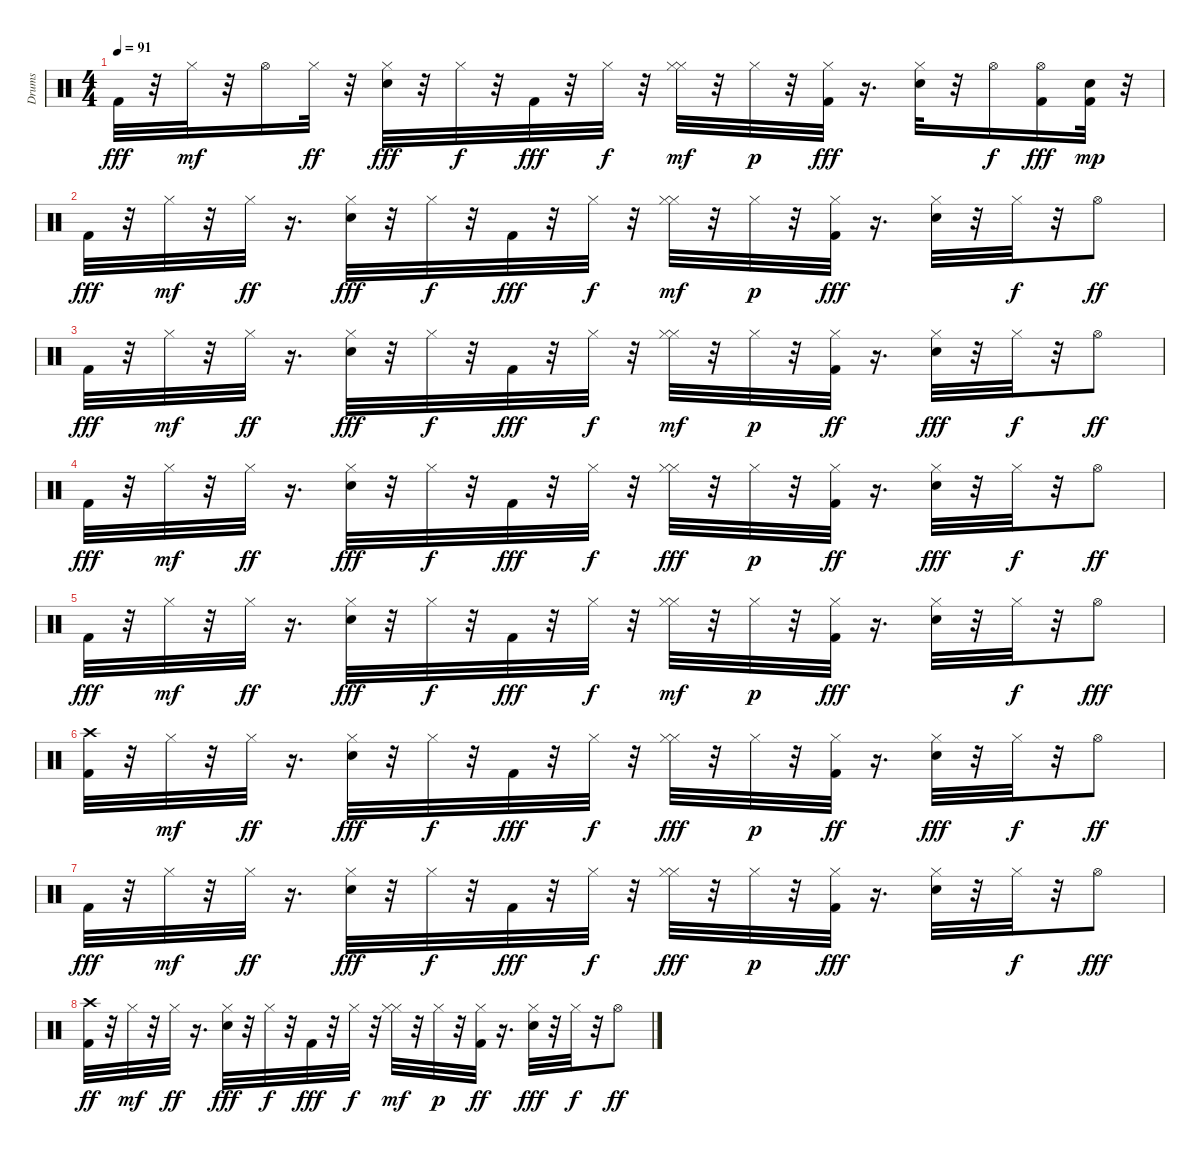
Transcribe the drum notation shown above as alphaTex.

\track ("Drums" "Drums") {instrument percussion}
\staff {score}
\articulation defaults
\ts (4 4)
\tempo 91
\clef neutral
\ks c "Kick (hit) 2".32{dy fff}
r.32 "Hi-Hat (closed)".32{dy mf} r.32 "Hi-Hat (open)".16 "Hi-Hat (closed)".32{dy ff} r.32 ("Snare (hit) 2" "Hi-Hat (closed)").32{dy fff} r.32 "Hi-Hat (closed)".32{dy f} r.32 "Kick (hit) 2".32{dy fff} r.32 "Hi-Hat (closed)".32{dy f} r.32 ("Hi-Hat (closed)" "Hi-Hat (closed)").32{dy mf} r.32 "Hi-Hat (closed)".32{dy p} r.32 ("Hi-Hat (closed)" "Kick (hit) 2").32{dy fff} r.16{d} ("Snare (hit) 2" "Hi-Hat (closed)").32 r.32 "Hi-Hat (open)".16{dy f} ("Kick (hit) 2" "Hi-Hat (open)").16{dy fff} ("Kick (hit) 2" "Snare (hit) 2").32{dy mp} r.32 |
"Kick (hit) 2".32{dy fff} r.32 "Hi-Hat (closed)".32{dy mf} r.32 "Hi-Hat (closed)".32{dy ff} r.16{d} ("Hi-Hat (closed)" "Snare (hit) 2").32{dy fff} r.32 "Hi-Hat (closed)".32{dy f} r.32 "Kick (hit) 2".32{dy fff} r.32 "Hi-Hat (closed)".32{dy f} r.32 ("Hi-Hat (closed)" "Hi-Hat (closed)").32{dy mf} r.32 "Hi-Hat (closed)".32{dy p} r.32 ("Hi-Hat (closed)" "Kick (hit) 2").32{dy fff} r.16{d} ("Snare (hit) 2" "Hi-Hat (closed)").32 r.32 "Hi-Hat (closed)".32{dy f} r.32 "Hi-Hat (open)".8{dy ff} |
"Kick (hit) 2".32{dy fff} r.32 "Hi-Hat (closed)".32{dy mf} r.32 "Hi-Hat (closed)".32{dy ff} r.16{d} ("Hi-Hat (closed)" "Snare (hit) 2").32{dy fff} r.32 "Hi-Hat (closed)".32{dy f} r.32 "Kick (hit) 2".32{dy fff} r.32 "Hi-Hat (closed)".32{dy f} r.32 ("Hi-Hat (closed)" "Hi-Hat (closed)").32{dy mf} r.32 "Hi-Hat (closed)".32{dy p} r.32 ("Kick (hit) 2" "Hi-Hat (closed)").32{dy ff} r.16{d} ("Hi-Hat (closed)" "Snare (hit) 2").32{dy fff} r.32 "Hi-Hat (closed)".32{dy f} r.32 "Hi-Hat (open)".8{dy ff} |
"Kick (hit) 2".32{dy fff} r.32 "Hi-Hat (closed)".32{dy mf} r.32 "Hi-Hat (closed)".32{dy ff} r.16{d} ("Snare (hit) 2" "Hi-Hat (closed)").32{dy fff} r.32 "Hi-Hat (closed)".32{dy f} r.32 "Kick (hit) 2".32{dy fff} r.32 "Hi-Hat (closed)".32{dy f} r.32 ("Hi-Hat (closed)" "Hi-Hat (closed)").32{dy fff} r.32 "Hi-Hat (closed)".32{dy p} r.32 ("Kick (hit) 2" "Hi-Hat (closed)").32{dy ff} r.16{d} ("Hi-Hat (closed)" "Snare (hit) 2").32{dy fff} r.32 "Hi-Hat (closed)".32{dy f} r.32 "Hi-Hat (open)".8{dy ff} |
"Kick (hit) 2".32{dy fff} r.32 "Hi-Hat (closed)".32{dy mf} r.32 "Hi-Hat (closed)".32{dy ff} r.16{d} ("Hi-Hat (closed)" "Snare (hit) 2").32{dy fff} r.32 "Hi-Hat (closed)".32{dy f} r.32 "Kick (hit) 2".32{dy fff} r.32 "Hi-Hat (closed)".32{dy f} r.32 ("Hi-Hat (closed)" "Hi-Hat (closed)").32{dy mf} r.32 "Hi-Hat (closed)".32{dy p} r.32 ("Hi-Hat (closed)" "Kick (hit) 2").32{dy fff} r.16{d} ("Hi-Hat (closed)" "Snare (hit) 2").32 r.32 "Hi-Hat (closed)".32{dy f} r.32 "Hi-Hat (open)".8{dy fff} |
("Crash high (hit)" "Kick (hit) 2").32 r.32 "Hi-Hat (closed)".32{dy mf} r.32 "Hi-Hat (closed)".32{dy ff} r.16{d} ("Hi-Hat (closed)" "Snare (hit) 2").32{dy fff} r.32 "Hi-Hat (closed)".32{dy f} r.32 "Kick (hit) 2".32{dy fff} r.32 "Hi-Hat (closed)".32{dy f} r.32 ("Hi-Hat (closed)" "Hi-Hat (closed)").32{dy fff} r.32 "Hi-Hat (closed)".32{dy p} r.32 ("Kick (hit) 2" "Hi-Hat (closed)").32{dy ff} r.16{d} ("Hi-Hat (closed)" "Snare (hit) 2").32{dy fff} r.32 "Hi-Hat (closed)".32{dy f} r.32 "Hi-Hat (open)".8{dy ff} |
"Kick (hit) 2".32{dy fff} r.32 "Hi-Hat (closed)".32{dy mf} r.32 "Hi-Hat (closed)".32{dy ff} r.16{d} ("Snare (hit) 2" "Hi-Hat (closed)").32{dy fff} r.32 "Hi-Hat (closed)".32{dy f} r.32 "Kick (hit) 2".32{dy fff} r.32 "Hi-Hat (closed)".32{dy f} r.32 ("Hi-Hat (closed)" "Hi-Hat (closed)").32{dy fff} r.32 "Hi-Hat (closed)".32{dy p} r.32 ("Hi-Hat (closed)" "Kick (hit) 2").32{dy fff} r.16{d} ("Snare (hit) 2" "Hi-Hat (closed)").32 r.32 "Hi-Hat (closed)".32{dy f} r.32 "Hi-Hat (open)".8{dy fff} |
("Kick (hit) 2" "Crash high (hit)").32{dy ff} r.32 "Hi-Hat (closed)".32{dy mf} r.32 "Hi-Hat (closed)".32{dy ff} r.16{d} ("Hi-Hat (closed)" "Snare (hit) 2").32{dy fff} r.32 "Hi-Hat (closed)".32{dy f} r.32 "Kick (hit) 2".32{dy fff} r.32 "Hi-Hat (closed)".32{dy f} r.32 ("Hi-Hat (closed)" "Hi-Hat (closed)").32{dy mf} r.32 "Hi-Hat (closed)".32{dy p} r.32 ("Kick (hit) 2" "Hi-Hat (closed)").32{dy ff} r.16{d} ("Snare (hit) 2" "Hi-Hat (closed)").32{dy fff} r.32 "Hi-Hat (closed)".32{dy f} r.32 "Hi-Hat (open)".8{dy ff}
